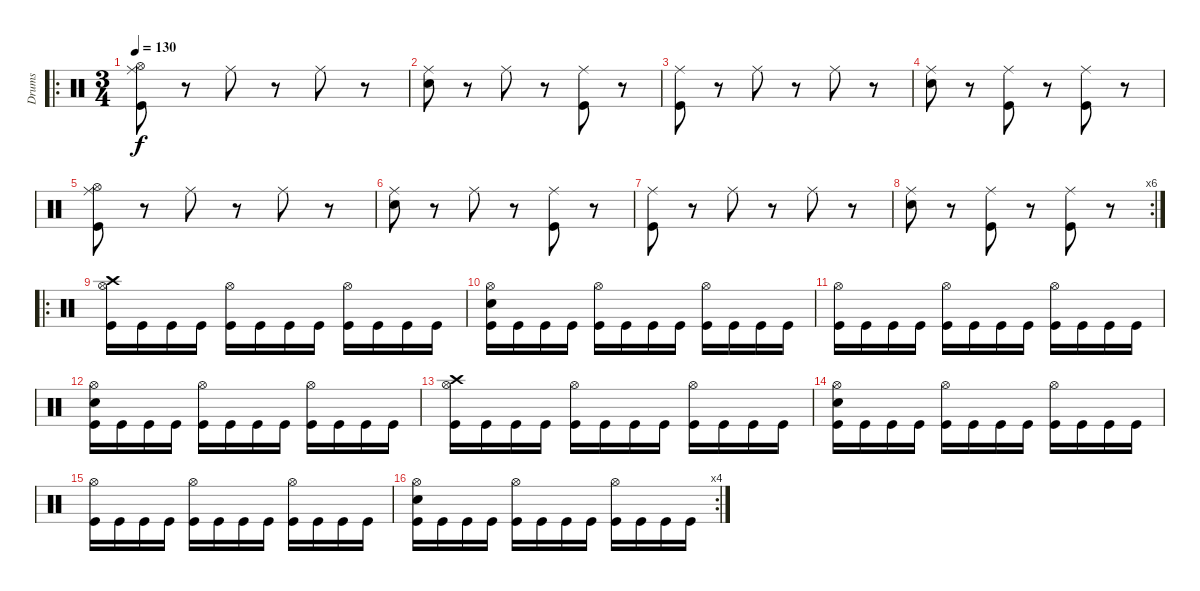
\track ("Drums" "Drums") {instrument percussion}
\staff {score}
\articulation defaults
\ro
\ts (3 4)
\tempo 130
\clef neutral
\ks c
("Ride (middle)" "Hi-Hat (open)" "Kick (hit)").8{dy f} r.8 "Ride (middle)".8 r.8 "Ride (middle)".8 r.8 |
("Ride (middle)" "Electric Snare (hit)").8 r.8 "Ride (middle)".8 r.8 ("Ride (middle)" "Kick (hit)").8 r.8 |
("Ride (middle)" "Kick (hit)").8 r.8 "Ride (middle)".8 r.8 "Ride (middle)".8 r.8 |
("Ride (middle)" "Electric Snare (hit)").8 r.8 ("Ride (middle)" "Kick (hit)").8 r.8 ("Ride (middle)" "Kick (hit)").8 r.8 |
("Ride (middle)" "Hi-Hat (open)" "Kick (hit)").8 r.8 "Ride (middle)".8 r.8 "Ride (middle)".8 r.8 |
("Ride (middle)" "Electric Snare (hit)").8 r.8 "Ride (middle)".8 r.8 ("Ride (middle)" "Kick (hit)").8 r.8 |
("Ride (middle)" "Kick (hit)").8 r.8 "Ride (middle)".8 r.8 "Ride (middle)".8 r.8 |
\rc 6
("Ride (middle)" "Electric Snare (hit)").8 r.8 ("Ride (middle)" "Kick (hit)").8 r.8 ("Ride (middle)" "Kick (hit)").8 r.8 |
\ro
("Hi-Hat (open)" "Crash high (hit)" "Kick (hit)").16 "Kick (hit)".16 "Kick (hit)".16 "Kick (hit)".16 ("Hi-Hat (open)" "Kick (hit)").16 "Kick (hit)".16 "Kick (hit)".16 "Kick (hit)".16 ("Hi-Hat (open)" "Kick (hit)").16 "Kick (hit)".16 "Kick (hit)".16 "Kick (hit)".16 |
("Hi-Hat (open)" "Electric Snare (hit)" "Kick (hit)").16 "Kick (hit)".16 "Kick (hit)".16 "Kick (hit)".16 ("Hi-Hat (open)" "Kick (hit)").16 "Kick (hit)".16 "Kick (hit)".16 "Kick (hit)".16 ("Hi-Hat (open)" "Kick (hit)").16 "Kick (hit)".16 "Kick (hit)".16 "Kick (hit)".16 |
("Hi-Hat (open)" "Kick (hit)").16 "Kick (hit)".16 "Kick (hit)".16 "Kick (hit)".16 ("Hi-Hat (open)" "Kick (hit)").16 "Kick (hit)".16 "Kick (hit)".16 "Kick (hit)".16 ("Hi-Hat (open)" "Kick (hit)").16 "Kick (hit)".16 "Kick (hit)".16 "Kick (hit)".16 |
("Hi-Hat (open)" "Electric Snare (hit)" "Kick (hit)").16 "Kick (hit)".16 "Kick (hit)".16 "Kick (hit)".16 ("Hi-Hat (open)" "Kick (hit)").16 "Kick (hit)".16 "Kick (hit)".16 "Kick (hit)".16 ("Hi-Hat (open)" "Kick (hit)").16 "Kick (hit)".16 "Kick (hit)".16 "Kick (hit)".16 |
("Hi-Hat (open)" "Crash high (hit)" "Kick (hit)").16 "Kick (hit)".16 "Kick (hit)".16 "Kick (hit)".16 ("Hi-Hat (open)" "Kick (hit)").16 "Kick (hit)".16 "Kick (hit)".16 "Kick (hit)".16 ("Hi-Hat (open)" "Kick (hit)").16 "Kick (hit)".16 "Kick (hit)".16 "Kick (hit)".16 |
("Hi-Hat (open)" "Electric Snare (hit)" "Kick (hit)").16 "Kick (hit)".16 "Kick (hit)".16 "Kick (hit)".16 ("Hi-Hat (open)" "Kick (hit)").16 "Kick (hit)".16 "Kick (hit)".16 "Kick (hit)".16 ("Hi-Hat (open)" "Kick (hit)").16 "Kick (hit)".16 "Kick (hit)".16 "Kick (hit)".16 |
("Hi-Hat (open)" "Kick (hit)").16 "Kick (hit)".16 "Kick (hit)".16 "Kick (hit)".16 ("Hi-Hat (open)" "Kick (hit)").16 "Kick (hit)".16 "Kick (hit)".16 "Kick (hit)".16 ("Hi-Hat (open)" "Kick (hit)").16 "Kick (hit)".16 "Kick (hit)".16 "Kick (hit)".16 |
\rc 4
("Hi-Hat (open)" "Electric Snare (hit)" "Kick (hit)").16 "Kick (hit)".16 "Kick (hit)".16 "Kick (hit)".16 ("Hi-Hat (open)" "Kick (hit)").16 "Kick (hit)".16 "Kick (hit)".16 "Kick (hit)".16 ("Hi-Hat (open)" "Kick (hit)").16 "Kick (hit)".16 "Kick (hit)".16 "Kick (hit)".16
